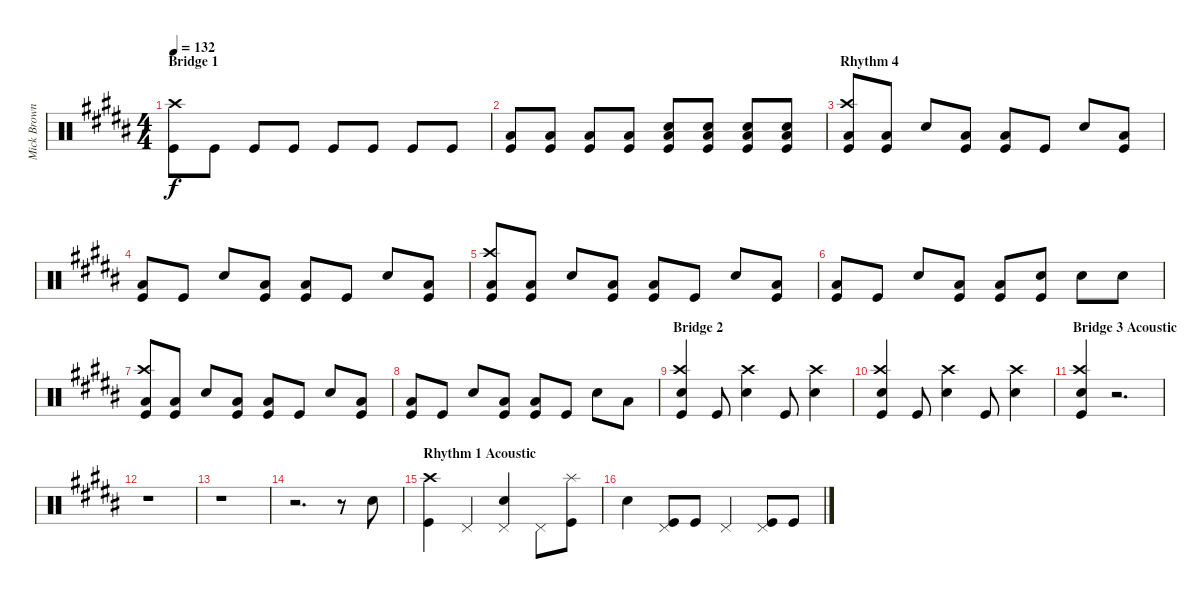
\track ("Mick Brown" "Mick Brown") {instrument percussion}
\staff {score}
\articulation defaults
\ts (4 4)
\section ("" "Bridge 1")
\tempo 132
\clef neutral
\ks g#minor
("Kick (hit)" "Crash high (hit)").8{dy f} "Kick (hit)".8 "Kick (hit)".8 "Kick (hit)".8 "Kick (hit)".8 "Kick (hit)".8 "Kick (hit)".8 "Kick (hit)".8 |
("Kick (hit)" "Low Floor Tom (hit)").8 ("Kick (hit)" "Low Floor Tom (hit)").8 ("Low Floor Tom (hit)" "Kick (hit)").8 ("Low Floor Tom (hit)" "Kick (hit)").8 ("Low Floor Tom (hit)" "Kick (hit)" "Snare (hit) 2").8 ("Low Floor Tom (hit)" "Snare (hit) 2" "Kick (hit)").8 ("Low Floor Tom (hit)" "Snare (hit) 2" "Kick (hit)").8 ("Low Floor Tom (hit)" "Snare (hit) 2" "Kick (hit)").8 |
\section ("" "Rhythm 4")
("Kick (hit)" "Low Floor Tom (hit)" "Crash high (hit)").8 ("Kick (hit)" "Low Floor Tom (hit)").8 "Snare (hit) 2".8 ("Kick (hit)" "Low Floor Tom (hit)").8 ("Low Floor Tom (hit)" "Kick (hit)").8 "Kick (hit)".8 "Snare (hit) 2".8 ("Kick (hit)" "Low Floor Tom (hit)").8 |
("Kick (hit)" "Low Floor Tom (hit)").8 "Kick (hit)".8 "Snare (hit) 2".8 ("Kick (hit)" "Low Floor Tom (hit)").8 ("Kick (hit)" "Low Floor Tom (hit)").8 "Kick (hit)".8 "Snare (hit) 2".8 ("Kick (hit)" "Low Floor Tom (hit)").8 |
("Kick (hit)" "Low Floor Tom (hit)" "Crash high (hit)").8 ("Kick (hit)" "Low Floor Tom (hit)").8 "Snare (hit) 2".8 ("Kick (hit)" "Low Floor Tom (hit)").8 ("Kick (hit)" "Low Floor Tom (hit)").8 "Kick (hit)".8 "Snare (hit) 2".8 ("Kick (hit)" "Low Floor Tom (hit)").8 |
("Kick (hit)" "Low Floor Tom (hit)").8 "Kick (hit)".8 "Snare (hit) 2".8 ("Kick (hit)" "Low Floor Tom (hit)").8 ("Kick (hit)" "Low Floor Tom (hit)").8 ("Snare (hit) 2" "Kick (hit)").8 "Snare (hit) 2".8 "Snare (hit) 2".8 |
("Kick (hit)" "Low Floor Tom (hit)" "Crash high (hit)").8 ("Kick (hit)" "Low Floor Tom (hit)").8 "Snare (hit) 2".8 ("Kick (hit)" "Low Floor Tom (hit)").8 ("Kick (hit)" "Low Floor Tom (hit)").8 "Kick (hit)".8 "Snare (hit) 2".8 ("Kick (hit)" "Low Floor Tom (hit)").8 |
("Kick (hit)" "Low Floor Tom (hit)").8 "Kick (hit)".8 "Snare (hit) 2".8 ("Kick (hit)" "Low Floor Tom (hit)").8 ("Kick (hit)" "Low Floor Tom (hit)").8 "Kick (hit)".8 "Snare (hit) 2".8 "Low Floor Tom (hit)".8 |
\section ("" "Bridge 2")
("Kick (hit)" "Snare (hit) 2" "Crash high (hit)").4 "Kick (hit)".8 ("Snare (hit) 2" "Crash high (hit)").4 "Kick (hit)".8 ("Snare (hit) 2" "Crash high (hit)").4 |
("Kick (hit)" "Snare (hit) 2" "Crash high (hit)").4 "Kick (hit)".8 ("Snare (hit) 2" "Crash high (hit)").4 "Kick (hit)".8 ("Snare (hit) 2" "Crash high (hit)").4 |
\section ("" "Bridge 3 Acoustic")
("Snare (hit) 2" "Crash high (hit)" "Kick (hit)").4 r.2{d} |
r.1 |
r.1 |
r.2{d} r.8 "Snare (hit) 2".8 |
\section ("" "Rhythm 1 Acoustic")
("Kick (hit)" "Crash high (hit)").4 "Pedal Hi-Hat (hit)".4 ("Snare (hit) 2" "Pedal Hi-Hat (hit)").4 "Pedal Hi-Hat (hit)".8 ("Kick (hit)" "Splash (hit)").8 |
"Snare (hit) 2".4 ("Pedal Hi-Hat (hit)" "Kick (hit)").8 "Kick (hit)".8 "Pedal Hi-Hat (hit)".4 ("Pedal Hi-Hat (hit)" "Kick (hit)").8 "Kick (hit)".8
